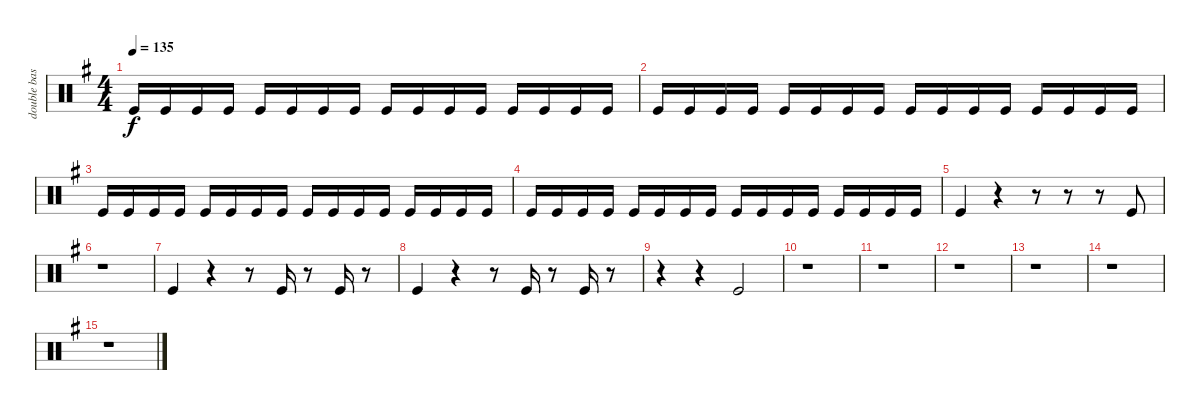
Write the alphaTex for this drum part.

\track ("double bass" "double bas") {instrument percussion}
\staff {score}
\articulation defaults
\ts (4 4)
\tempo 135
\clef neutral
\ks eminor "Kick (hit)".16{dy f} "Kick (hit)".16 "Kick (hit)".16 "Kick (hit)".16 "Kick (hit)".16 "Kick (hit)".16 "Kick (hit)".16 "Kick (hit)".16 "Kick (hit)".16 "Kick (hit)".16 "Kick (hit)".16 "Kick (hit)".16 "Kick (hit)".16 "Kick (hit)".16 "Kick (hit)".16 "Kick (hit)".16
|
"Kick (hit)".16 "Kick (hit)".16 "Kick (hit)".16 "Kick (hit)".16 "Kick (hit)".16 "Kick (hit)".16 "Kick (hit)".16 "Kick (hit)".16 "Kick (hit)".16 "Kick (hit)".16 "Kick (hit)".16 "Kick (hit)".16 "Kick (hit)".16 "Kick (hit)".16 "Kick (hit)".16 "Kick (hit)".16 |
"Kick (hit)".16 "Kick (hit)".16 "Kick (hit)".16 "Kick (hit)".16 "Kick (hit)".16 "Kick (hit)".16 "Kick (hit)".16 "Kick (hit)".16 "Kick (hit)".16 "Kick (hit)".16 "Kick (hit)".16 "Kick (hit)".16 "Kick (hit)".16 "Kick (hit)".16 "Kick (hit)".16 "Kick (hit)".16 |
"Kick (hit)".16 "Kick (hit)".16 "Kick (hit)".16 "Kick (hit)".16 "Kick (hit)".16 "Kick (hit)".16 "Kick (hit)".16 "Kick (hit)".16 "Kick (hit)".16 "Kick (hit)".16 "Kick (hit)".16 "Kick (hit)".16 "Kick (hit)".16 "Kick (hit)".16 "Kick (hit)".16 "Kick (hit)".16 |
"Kick (hit)".4 r.4 r.8 r.8 r.8 "Kick (hit)".8 |
r.1 |
"Kick (hit)".4 r.4 r.8 "Kick (hit)".16 r.8 "Kick (hit)".16 r.8 |
"Kick (hit)".4 r.4 r.8 "Kick (hit)".16 r.8 "Kick (hit)".16 r.8 |
r.4 r.4 "Kick (hit)".2 |
r.1 |
r.1 |
r.1 |
r.1 |
r.1 |
r.1
